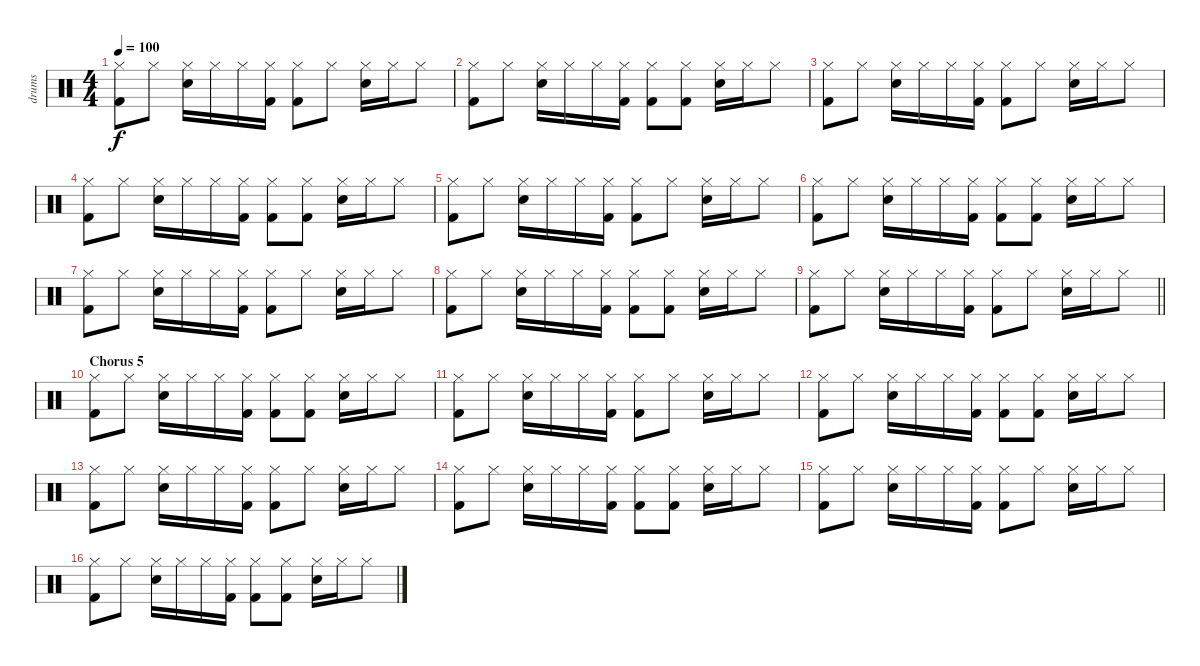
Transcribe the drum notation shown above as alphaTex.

\track ("drums" "drums") {instrument percussion}
\staff {score}
\articulation defaults
\ts (4 4)
\tempo 100
\clef neutral
\ks c
("Hi-Hat (closed)" "Kick (hit) 2").8{dy f} "Hi-Hat (closed)".8 ("Electric Snare (hit)" "Hi-Hat (closed)").16 "Hi-Hat (closed)".16 "Hi-Hat (closed)".16 ("Hi-Hat (closed)" "Kick (hit) 2").16 ("Hi-Hat (closed)" "Kick (hit) 2").8 "Hi-Hat (closed)".8 ("Electric Snare (hit)" "Hi-Hat (closed)").16 "Hi-Hat (closed)".16 "Hi-Hat (closed)".8 |
("Hi-Hat (closed)" "Kick (hit) 2").8 "Hi-Hat (closed)".8 ("Electric Snare (hit)" "Hi-Hat (closed)").16 "Hi-Hat (closed)".16 "Hi-Hat (closed)".16 ("Hi-Hat (closed)" "Kick (hit) 2").16 ("Hi-Hat (closed)" "Kick (hit) 2").8 ("Hi-Hat (closed)" "Kick (hit) 2").8 ("Electric Snare (hit)" "Hi-Hat (closed)").16 "Hi-Hat (closed)".16 "Hi-Hat (closed)".8 |
("Hi-Hat (closed)" "Kick (hit) 2").8 "Hi-Hat (closed)".8 ("Electric Snare (hit)" "Hi-Hat (closed)").16 "Hi-Hat (closed)".16 "Hi-Hat (closed)".16 ("Hi-Hat (closed)" "Kick (hit) 2").16 ("Hi-Hat (closed)" "Kick (hit) 2").8 "Hi-Hat (closed)".8 ("Electric Snare (hit)" "Hi-Hat (closed)").16 "Hi-Hat (closed)".16 "Hi-Hat (closed)".8 |
("Hi-Hat (closed)" "Kick (hit) 2").8 "Hi-Hat (closed)".8 ("Electric Snare (hit)" "Hi-Hat (closed)").16 "Hi-Hat (closed)".16 "Hi-Hat (closed)".16 ("Hi-Hat (closed)" "Kick (hit) 2").16 ("Hi-Hat (closed)" "Kick (hit) 2").8 ("Hi-Hat (closed)" "Kick (hit) 2").8 ("Electric Snare (hit)" "Hi-Hat (closed)").16 "Hi-Hat (closed)".16 "Hi-Hat (closed)".8 |
("Hi-Hat (closed)" "Kick (hit) 2").8 "Hi-Hat (closed)".8 ("Electric Snare (hit)" "Hi-Hat (closed)").16 "Hi-Hat (closed)".16 "Hi-Hat (closed)".16 ("Hi-Hat (closed)" "Kick (hit) 2").16 ("Hi-Hat (closed)" "Kick (hit) 2").8 "Hi-Hat (closed)".8 ("Electric Snare (hit)" "Hi-Hat (closed)").16 "Hi-Hat (closed)".16 "Hi-Hat (closed)".8 |
("Hi-Hat (closed)" "Kick (hit) 2").8 "Hi-Hat (closed)".8 ("Electric Snare (hit)" "Hi-Hat (closed)").16 "Hi-Hat (closed)".16 "Hi-Hat (closed)".16 ("Hi-Hat (closed)" "Kick (hit) 2").16 ("Hi-Hat (closed)" "Kick (hit) 2").8 ("Hi-Hat (closed)" "Kick (hit) 2").8 ("Electric Snare (hit)" "Hi-Hat (closed)").16 "Hi-Hat (closed)".16 "Hi-Hat (closed)".8 |
("Hi-Hat (closed)" "Kick (hit) 2").8 "Hi-Hat (closed)".8 ("Electric Snare (hit)" "Hi-Hat (closed)").16 "Hi-Hat (closed)".16 "Hi-Hat (closed)".16 ("Hi-Hat (closed)" "Kick (hit) 2").16 ("Hi-Hat (closed)" "Kick (hit) 2").8 "Hi-Hat (closed)".8 ("Electric Snare (hit)" "Hi-Hat (closed)").16 "Hi-Hat (closed)".16 "Hi-Hat (closed)".8 |
("Hi-Hat (closed)" "Kick (hit) 2").8 "Hi-Hat (closed)".8 ("Electric Snare (hit)" "Hi-Hat (closed)").16 "Hi-Hat (closed)".16 "Hi-Hat (closed)".16 ("Hi-Hat (closed)" "Kick (hit) 2").16 ("Hi-Hat (closed)" "Kick (hit) 2").8 ("Hi-Hat (closed)" "Kick (hit) 2").8 ("Electric Snare (hit)" "Hi-Hat (closed)").16 "Hi-Hat (closed)".16 "Hi-Hat (closed)".8 |
\barLineRight lightlight
("Hi-Hat (closed)" "Kick (hit) 2").8 "Hi-Hat (closed)".8 ("Electric Snare (hit)" "Hi-Hat (closed)").16 "Hi-Hat (closed)".16 "Hi-Hat (closed)".16 ("Hi-Hat (closed)" "Kick (hit) 2").16 ("Hi-Hat (closed)" "Kick (hit) 2").8 "Hi-Hat (closed)".8 ("Electric Snare (hit)" "Hi-Hat (closed)").16 "Hi-Hat (closed)".16 "Hi-Hat (closed)".8 |
\section ("" "Chorus 5")
("Hi-Hat (closed)" "Kick (hit) 2").8 "Hi-Hat (closed)".8 ("Electric Snare (hit)" "Hi-Hat (closed)").16 "Hi-Hat (closed)".16 "Hi-Hat (closed)".16 ("Hi-Hat (closed)" "Kick (hit) 2").16 ("Hi-Hat (closed)" "Kick (hit) 2").8 ("Hi-Hat (closed)" "Kick (hit) 2").8 ("Electric Snare (hit)" "Hi-Hat (closed)").16 "Hi-Hat (closed)".16 "Hi-Hat (closed)".8 |
("Hi-Hat (closed)" "Kick (hit) 2").8 "Hi-Hat (closed)".8 ("Electric Snare (hit)" "Hi-Hat (closed)").16 "Hi-Hat (closed)".16 "Hi-Hat (closed)".16 ("Hi-Hat (closed)" "Kick (hit) 2").16 ("Hi-Hat (closed)" "Kick (hit) 2").8 "Hi-Hat (closed)".8 ("Electric Snare (hit)" "Hi-Hat (closed)").16 "Hi-Hat (closed)".16 "Hi-Hat (closed)".8 |
("Hi-Hat (closed)" "Kick (hit) 2").8 "Hi-Hat (closed)".8 ("Electric Snare (hit)" "Hi-Hat (closed)").16 "Hi-Hat (closed)".16 "Hi-Hat (closed)".16 ("Hi-Hat (closed)" "Kick (hit) 2").16 ("Hi-Hat (closed)" "Kick (hit) 2").8 ("Hi-Hat (closed)" "Kick (hit) 2").8 ("Electric Snare (hit)" "Hi-Hat (closed)").16 "Hi-Hat (closed)".16 "Hi-Hat (closed)".8 |
("Hi-Hat (closed)" "Kick (hit) 2").8 "Hi-Hat (closed)".8 ("Electric Snare (hit)" "Hi-Hat (closed)").16 "Hi-Hat (closed)".16 "Hi-Hat (closed)".16 ("Hi-Hat (closed)" "Kick (hit) 2").16 ("Hi-Hat (closed)" "Kick (hit) 2").8 "Hi-Hat (closed)".8 ("Electric Snare (hit)" "Hi-Hat (closed)").16 "Hi-Hat (closed)".16 "Hi-Hat (closed)".8 |
("Hi-Hat (closed)" "Kick (hit) 2").8 "Hi-Hat (closed)".8 ("Electric Snare (hit)" "Hi-Hat (closed)").16 "Hi-Hat (closed)".16 "Hi-Hat (closed)".16 ("Hi-Hat (closed)" "Kick (hit) 2").16 ("Hi-Hat (closed)" "Kick (hit) 2").8 ("Hi-Hat (closed)" "Kick (hit) 2").8 ("Electric Snare (hit)" "Hi-Hat (closed)").16 "Hi-Hat (closed)".16 "Hi-Hat (closed)".8 |
("Hi-Hat (closed)" "Kick (hit) 2").8 "Hi-Hat (closed)".8 ("Electric Snare (hit)" "Hi-Hat (closed)").16 "Hi-Hat (closed)".16 "Hi-Hat (closed)".16 ("Hi-Hat (closed)" "Kick (hit) 2").16 ("Hi-Hat (closed)" "Kick (hit) 2").8 "Hi-Hat (closed)".8 ("Electric Snare (hit)" "Hi-Hat (closed)").16 "Hi-Hat (closed)".16 "Hi-Hat (closed)".8 |
("Hi-Hat (closed)" "Kick (hit) 2").8 "Hi-Hat (closed)".8 ("Electric Snare (hit)" "Hi-Hat (closed)").16 "Hi-Hat (closed)".16 "Hi-Hat (closed)".16 ("Hi-Hat (closed)" "Kick (hit) 2").16 ("Hi-Hat (closed)" "Kick (hit) 2").8 ("Hi-Hat (closed)" "Kick (hit) 2").8 ("Electric Snare (hit)" "Hi-Hat (closed)").16 "Hi-Hat (closed)".16 "Hi-Hat (closed)".8
